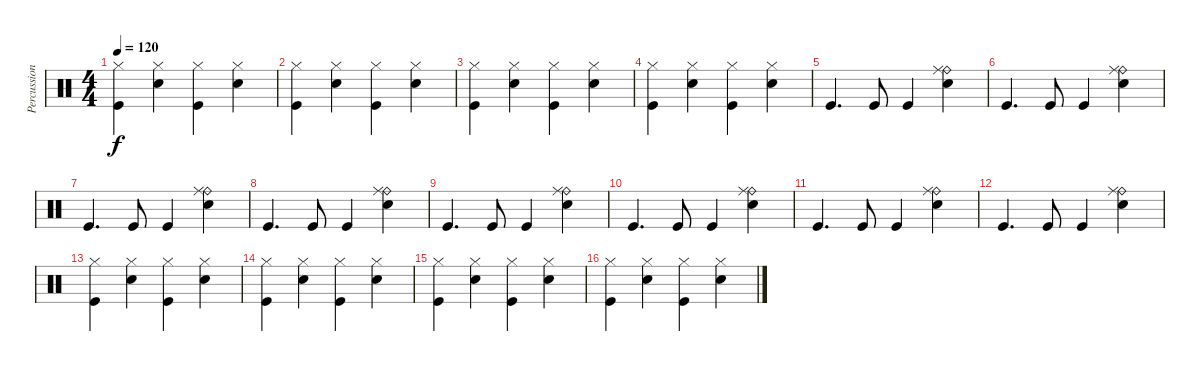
\track ("Percussion" "Percussion") {instrument percussion}
\staff {score}
\articulation defaults
\ts (4 4)
\tempo 120
\clef neutral
\ks c
("Hi-Hat (closed)" "Kick (hit)").4{dy f} ("Hi-Hat (closed)" "Snare (hit) 2").4 ("Hi-Hat (closed)" "Kick (hit)").4 ("Hi-Hat (closed)" "Snare (hit) 2").4 |
("Hi-Hat (closed)" "Kick (hit)").4 ("Hi-Hat (closed)" "Snare (hit) 2").4 ("Hi-Hat (closed)" "Kick (hit)").4 ("Hi-Hat (closed)" "Snare (hit) 2").4 |
("Hi-Hat (closed)" "Kick (hit)").4 ("Hi-Hat (closed)" "Snare (hit) 2").4 ("Hi-Hat (closed)" "Kick (hit)").4 ("Hi-Hat (closed)" "Snare (hit) 2").4 |
("Hi-Hat (closed)" "Kick (hit)").4 ("Hi-Hat (closed)" "Snare (hit) 2").4 ("Hi-Hat (closed)" "Kick (hit)").4 ("Hi-Hat (closed)" "Snare (hit) 2").4 |
"Kick (hit)".4{d} "Kick (hit)".8 "Kick (hit)".4 ("Electric Snare (hit)" "Ride (bell)" "Ride (middle)").4 |
"Kick (hit)".4{d} "Kick (hit)".8 "Kick (hit)".4 ("Electric Snare (hit)" "Ride (bell)" "Ride (middle)").4 |
"Kick (hit)".4{d} "Kick (hit)".8 "Kick (hit)".4 ("Electric Snare (hit)" "Ride (bell)" "Ride (middle)").4 |
"Kick (hit)".4{d} "Kick (hit)".8 "Kick (hit)".4 ("Electric Snare (hit)" "Ride (bell)" "Ride (middle)").4 |
"Kick (hit)".4{d} "Kick (hit)".8 "Kick (hit)".4 ("Electric Snare (hit)" "Ride (bell)" "Ride (middle)").4 |
"Kick (hit)".4{d} "Kick (hit)".8 "Kick (hit)".4 ("Electric Snare (hit)" "Ride (bell)" "Ride (middle)").4 |
"Kick (hit)".4{d} "Kick (hit)".8 "Kick (hit)".4 ("Electric Snare (hit)" "Ride (bell)" "Ride (middle)").4 |
"Kick (hit)".4{d} "Kick (hit)".8 "Kick (hit)".4 ("Electric Snare (hit)" "Ride (bell)" "Ride (middle)").4 |
("Hi-Hat (closed)" "Kick (hit)").4 ("Hi-Hat (closed)" "Snare (hit) 2").4 ("Hi-Hat (closed)" "Kick (hit)").4 ("Hi-Hat (closed)" "Snare (hit) 2").4 |
("Hi-Hat (closed)" "Kick (hit)").4 ("Hi-Hat (closed)" "Snare (hit) 2").4 ("Hi-Hat (closed)" "Kick (hit)").4 ("Hi-Hat (closed)" "Snare (hit) 2").4 |
("Hi-Hat (closed)" "Kick (hit)").4 ("Hi-Hat (closed)" "Snare (hit) 2").4 ("Hi-Hat (closed)" "Kick (hit)").4 ("Hi-Hat (closed)" "Snare (hit) 2").4 |
("Hi-Hat (closed)" "Kick (hit)").4 ("Hi-Hat (closed)" "Snare (hit) 2").4 ("Hi-Hat (closed)" "Kick (hit)").4 ("Hi-Hat (closed)" "Snare (hit) 2").4
